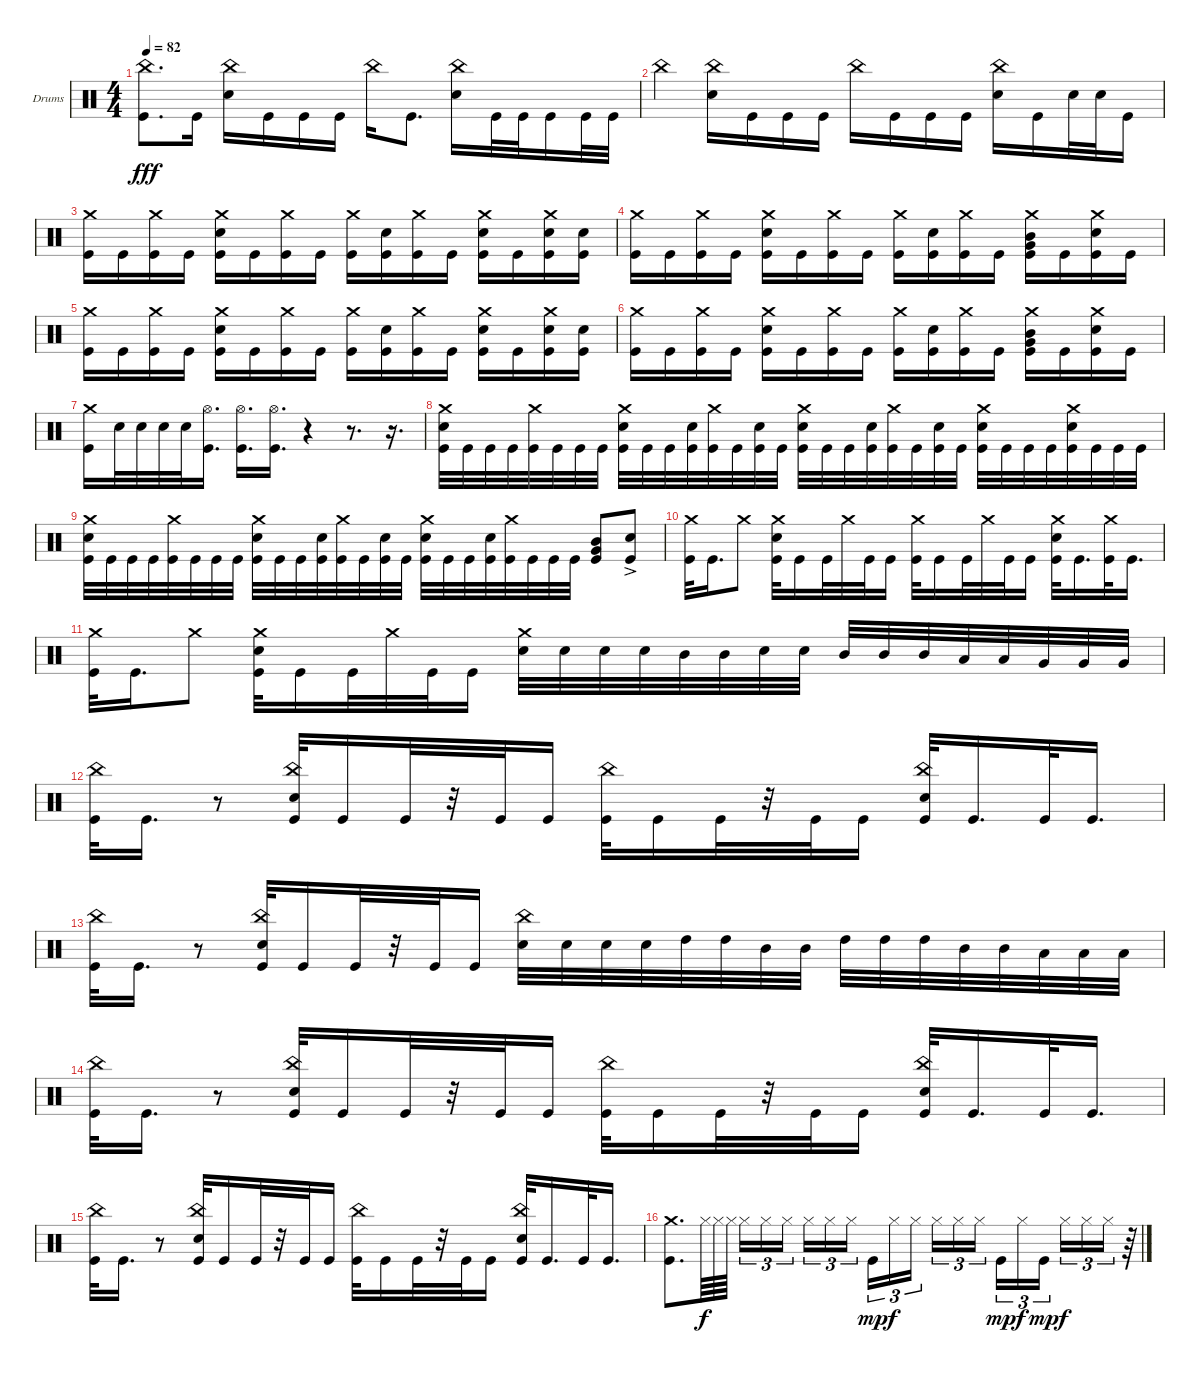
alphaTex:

\defaultSystemsLayout 4
\bracketExtendMode groupsimilarinstruments
\firstSystemTrackNameOrientation horizontal
\otherSystemsTrackNameOrientation horizontal
\track ("Drumkit" "Drums") {instrument percussion}
\staff {score}
\articulation defaults
\ts (4 4)
\tempo 82
\clef neutral
\ks c
("Kick (hit)" "China (hit)").8{d dy fff} "Kick (hit)".16 ("China (hit)" "Snare (hit) 2").16 "Kick (hit)".16 "Kick (hit)".16 "Kick (hit)".16 "China (hit)".16 "Kick (hit)".8{d} ("China (hit)" "Snare (hit) 2").16 "Kick (hit)".32 "Kick (hit)".32 "Kick (hit)".16 "Kick (hit)".32 "Kick (hit)".32 |
"China (hit)".4 ("Snare (hit) 2" "China (hit)").16 "Kick (hit)".16 "Kick (hit)".16 "Kick (hit)".16 "China (hit)".16 "Kick (hit)".16 "Kick (hit)".16 "Kick (hit)".16 ("Snare (hit) 2" "China (hit)").16 "Kick (hit)".16 "Snare (hit) 2".32 "Snare (hit) 2".32 "Kick (hit)".16 |
("Kick (hit)" "Crash medium (hit)").16 "Kick (hit)".16 ("Kick (hit)" "Crash medium (hit)").16 "Kick (hit)".16 ("Snare (hit) 2" "Crash medium (hit)" "Kick (hit)").16 "Kick (hit)".16 ("Kick (hit)" "Crash medium (hit)").16 "Kick (hit)".16 ("Kick (hit)" "Crash medium (hit)").16 ("Snare (hit) 2" "Kick (hit)").16 ("Kick (hit)" "Crash medium (hit)").16 "Kick (hit)".16 ("Snare (hit) 2" "Crash medium (hit)" "Kick (hit)").16 "Kick (hit)".16 ("Snare (hit) 2" "Crash medium (hit)" "Kick (hit)").16 ("Snare (hit) 2" "Kick (hit)").16 |
("Kick (hit)" "Crash medium (hit)").16 "Kick (hit)".16 ("Kick (hit)" "Crash medium (hit)").16 "Kick (hit)".16 ("Snare (hit) 2" "Crash medium (hit)" "Kick (hit)").16 "Kick (hit)".16 ("Kick (hit)" "Crash medium (hit)").16 "Kick (hit)".16 ("Kick (hit)" "Crash medium (hit)").16 ("Snare (hit) 2" "Kick (hit)").16 ("Kick (hit)" "Crash medium (hit)").16 "Kick (hit)".16 ("Crash medium (hit)" "Mid Tom (hit)" "Very Low Tom (hit)" "Kick (hit)").16 "Kick (hit)".16 ("Snare (hit) 2" "Crash medium (hit)" "Kick (hit)").16 "Kick (hit)".16 |
("Kick (hit)" "Crash medium (hit)").16 "Kick (hit)".16 ("Kick (hit)" "Crash medium (hit)").16 "Kick (hit)".16 ("Snare (hit) 2" "Crash medium (hit)" "Kick (hit)").16 "Kick (hit)".16 ("Kick (hit)" "Crash medium (hit)").16 "Kick (hit)".16 ("Kick (hit)" "Crash medium (hit)").16 ("Snare (hit) 2" "Kick (hit)").16 ("Kick (hit)" "Crash medium (hit)").16 "Kick (hit)".16 ("Snare (hit) 2" "Crash medium (hit)" "Kick (hit)").16 "Kick (hit)".16 ("Snare (hit) 2" "Crash medium (hit)" "Kick (hit)").16 ("Snare (hit) 2" "Kick (hit)").16 |
("Kick (hit)" "Crash medium (hit)").16 "Kick (hit)".16 ("Kick (hit)" "Crash medium (hit)").16 "Kick (hit)".16 ("Snare (hit) 2" "Crash medium (hit)" "Kick (hit)").16 "Kick (hit)".16 ("Kick (hit)" "Crash medium (hit)").16 "Kick (hit)".16 ("Kick (hit)" "Crash medium (hit)").16 ("Snare (hit) 2" "Kick (hit)").16 ("Kick (hit)" "Crash medium (hit)").16 "Kick (hit)".16 ("Crash medium (hit)" "Mid Tom (hit)" "Very Low Tom (hit)" "Kick (hit)").16 "Kick (hit)".16 ("Snare (hit) 2" "Crash medium (hit)" "Kick (hit)").16 "Kick (hit)".16 |
("Kick (hit)" "Crash medium (hit)").16 "Snare (hit) 2".32 "Snare (hit) 2".32 "Snare (hit) 2".32 "Snare (hit) 2".32 ("Kick (hit)" "Hi-Hat (open)").16{d} ("Kick (hit)" "Hi-Hat (open)").16{d} ("Kick (hit)" "Hi-Hat (open)").16{d} r.4 r.8{d} r.16{d} |
("Kick (hit)" "Snare (hit) 2" "Crash medium (hit)").32 "Kick (hit)".32 "Kick (hit)".32 "Kick (hit)".32 ("Kick (hit)" "Crash medium (hit)").32 "Kick (hit)".32 "Kick (hit)".32 "Kick (hit)".32 ("Kick (hit)" "Snare (hit) 2" "Crash medium (hit)").32 "Kick (hit)".32 "Kick (hit)".32 ("Kick (hit)" "Snare (hit) 2").32 ("Kick (hit)" "Crash medium (hit)").32 "Kick (hit)".32 ("Kick (hit)" "Snare (hit) 2").32 "Kick (hit)".32 ("Kick (hit)" "Snare (hit) 2" "Crash medium (hit)").32 "Kick (hit)".32 "Kick (hit)".32 ("Kick (hit)" "Snare (hit) 2").32 ("Kick (hit)" "Crash medium (hit)").32 "Kick (hit)".32 ("Kick (hit)" "Snare (hit) 2").32 "Kick (hit)".32 ("Kick (hit)" "Snare (hit) 2" "Crash medium (hit)").32 "Kick (hit)".32 "Kick (hit)".32 "Kick (hit)".32 ("Kick (hit)" "Snare (hit) 2" "Crash medium (hit)").32 "Kick (hit)".32 "Kick (hit)".32 "Kick (hit)".32 |
("Kick (hit)" "Snare (hit) 2" "Crash medium (hit)").32 "Kick (hit)".32 "Kick (hit)".32 "Kick (hit)".32 ("Kick (hit)" "Crash medium (hit)").32 "Kick (hit)".32 "Kick (hit)".32 "Kick (hit)".32 ("Kick (hit)" "Snare (hit) 2" "Crash medium (hit)").32 "Kick (hit)".32 "Kick (hit)".32 ("Kick (hit)" "Snare (hit) 2").32 ("Kick (hit)" "Crash medium (hit)").32 "Kick (hit)".32 ("Kick (hit)" "Snare (hit) 2").32 "Kick (hit)".32 ("Kick (hit)" "Snare (hit) 2" "Crash medium (hit)").32 "Kick (hit)".32 "Kick (hit)".32 ("Kick (hit)" "Snare (hit) 2").32 ("Kick (hit)" "Crash medium (hit)").32 "Kick (hit)".32 "Kick (hit)".32 "Kick (hit)".32 ("Mid Tom (hit)" "Very Low Tom (hit)" "Kick (hit)").8 ("Snare (hit) 2"{ac} "Kick (hit)").8 |
("Kick (hit)" "Crash medium (hit)").32 "Kick (hit)".16{d} "Crash medium (hit)".8 ("Kick (hit)" "Crash medium (hit)" "Snare (hit) 2").32 "Kick (hit)".16 "Kick (hit)".32 "Crash medium (hit)".32 "Kick (hit)".32 "Kick (hit)".16 ("Kick (hit)" "Crash medium (hit)").32 "Kick (hit)".16 "Kick (hit)".32 "Crash medium (hit)".32 "Kick (hit)".32 "Kick (hit)".16 ("Kick (hit)" "Crash medium (hit)" "Snare (hit) 2").32 "Kick (hit)".16{d} ("Kick (hit)" "Crash medium (hit)").32 "Kick (hit)".16{d} |
("Kick (hit)" "Crash medium (hit)").32 "Kick (hit)".16{d} "Crash medium (hit)".8 ("Kick (hit)" "Crash medium (hit)" "Snare (hit) 2").32 "Kick (hit)".16 "Kick (hit)".32 "Crash medium (hit)".32 "Kick (hit)".32 "Kick (hit)".16 ("Crash medium (hit)" "Snare (hit) 2").32 "Snare (hit) 2".32 "Snare (hit) 2".32 "Snare (hit) 2".32 "Mid Tom (hit)".32 "Mid Tom (hit)".32 "Snare (hit) 2".32 "Snare (hit) 2".32 "Mid Tom (hit)".32 "Mid Tom (hit)".32 "Mid Tom (hit)".32 "Low Tom (hit)".32 "Low Tom (hit)".32 "Very Low Tom (hit)".32 "Very Low Tom (hit)".32 "Very Low Tom (hit)".32 |
("Kick (hit)" "China (hit)").32 "Kick (hit)".16{d} r.8 ("Kick (hit)" "Snare (hit) 2" "China (hit)").32 "Kick (hit)".16 "Kick (hit)".32 r.32 "Kick (hit)".32 "Kick (hit)".16 ("Kick (hit)" "China (hit)").32 "Kick (hit)".16 "Kick (hit)".32 r.32 "Kick (hit)".32 "Kick (hit)".16 ("Kick (hit)" "Snare (hit) 2" "China (hit)").32 "Kick (hit)".16{d} "Kick (hit)".32 "Kick (hit)".16{d} |
("Kick (hit)" "China (hit)").32 "Kick (hit)".16{d} r.8 ("Kick (hit)" "Snare (hit) 2" "China (hit)").32 "Kick (hit)".16 "Kick (hit)".32 r.32 "Kick (hit)".32 "Kick (hit)".16 ("Snare (hit) 2" "China (hit)").32 "Snare (hit) 2".32 "Snare (hit) 2".32 "Snare (hit) 2".32 "High Tom (hit)".32 "High Tom (hit)".32 "Mid Tom (hit)".32 "Mid Tom (hit)".32 "High Tom (hit)".32 "High Tom (hit)".32 "High Tom (hit)".32 "Mid Tom (hit)".32 "Mid Tom (hit)".32 "Low Tom (hit)".32 "Low Tom (hit)".32 "Low Tom (hit)".32 |
("Kick (hit)" "China (hit)").32 "Kick (hit)".16{d} r.8 ("Kick (hit)" "Snare (hit) 2" "China (hit)").32 "Kick (hit)".16 "Kick (hit)".32 r.32 "Kick (hit)".32 "Kick (hit)".16 ("Kick (hit)" "China (hit)").32 "Kick (hit)".16 "Kick (hit)".32 r.32 "Kick (hit)".32 "Kick (hit)".16 ("Kick (hit)" "Snare (hit) 2" "China (hit)").32 "Kick (hit)".16{d} "Kick (hit)".32 "Kick (hit)".16{d} |
("Kick (hit)" "China (hit)").32 "Kick (hit)".16{d} r.8 ("Kick (hit)" "Snare (hit) 2" "China (hit)").32 "Kick (hit)".16 "Kick (hit)".32 r.32 "Kick (hit)".32 "Kick (hit)".16 ("Kick (hit)" "China (hit)").32 "Kick (hit)".16 "Kick (hit)".32 r.32 "Kick (hit)".32 "Kick (hit)".16 ("Kick (hit)" "Snare (hit) 2" "China (hit)").32 "Kick (hit)".16{d} "Kick (hit)".32 "Kick (hit)".16{d} |
("Kick (hit)" "Crash medium (hit)").8{d} "Hi-Hat (closed)".64{dy f} "Hi-Hat (closed)".64 "Hi-Hat (closed)".64 "Hi-Hat (closed)".16{tu (3 2)} "Hi-Hat (closed)".16{tu (3 2)} "Hi-Hat (closed)".16{tu (3 2)} "Hi-Hat (closed)".16{tu (3 2)} "Hi-Hat (closed)".16{tu (3 2)} "Hi-Hat (closed)".16{tu (3 2)} "Kick (hit)".16{tu (3 2) dy mp} "Hi-Hat (closed)".16{tu (3 2) dy f} "Hi-Hat (closed)".16{tu (3 2)} "Hi-Hat (closed)".16{tu (3 2)} "Hi-Hat (closed)".16{tu (3 2)} "Hi-Hat (closed)".16{tu (3 2)} "Kick (hit)".16{tu (3 2) dy mp} "Hi-Hat (closed)".16{tu (3 2) dy f} "Kick (hit)".16{tu (3 2) dy mp} "Hi-Hat (closed)".16{tu (3 2) dy f} "Hi-Hat (closed)".16{tu (3 2)} "Hi-Hat (closed)".16{tu (3 2)} r.64
